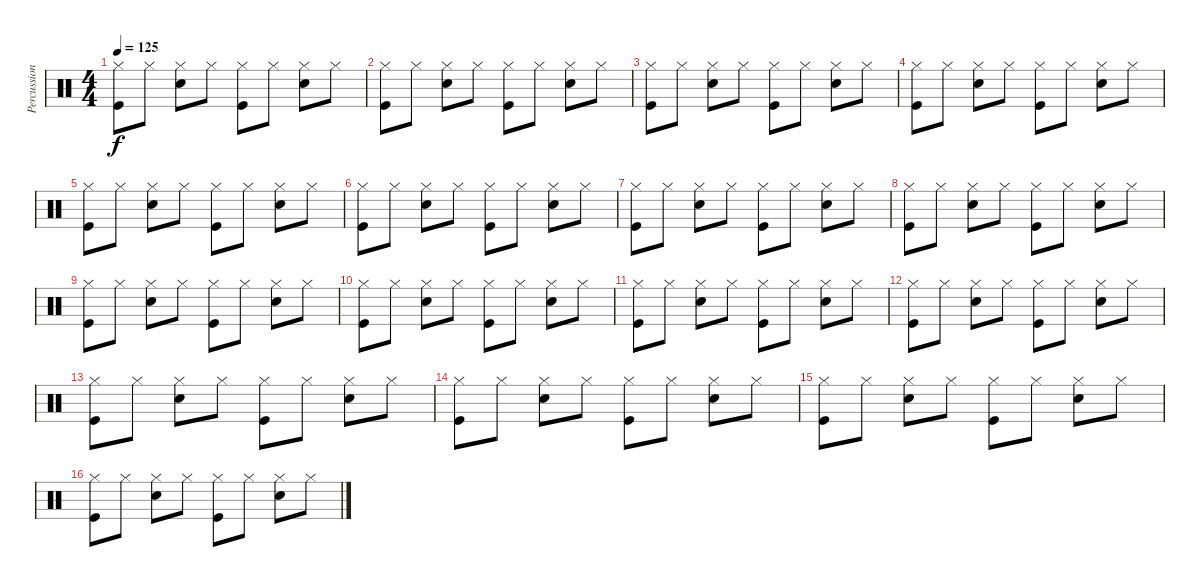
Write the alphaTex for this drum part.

\track ("Percussion" "Percussion") {instrument percussion}
\staff {score}
\articulation defaults
\ts (4 4)
\tempo 125
\clef neutral
\ks c
("Hi-Hat (closed)" "Kick (hit)").8{dy f} "Hi-Hat (closed)".8 ("Snare (hit) 2" "Hi-Hat (closed)").8 "Hi-Hat (closed)".8 ("Hi-Hat (closed)" "Kick (hit)").8 "Hi-Hat (closed)".8 ("Snare (hit) 2" "Hi-Hat (closed)").8 "Hi-Hat (closed)".8 |
("Hi-Hat (closed)" "Kick (hit)").8 "Hi-Hat (closed)".8 ("Snare (hit) 2" "Hi-Hat (closed)").8 "Hi-Hat (closed)".8 ("Hi-Hat (closed)" "Kick (hit)").8 "Hi-Hat (closed)".8 ("Snare (hit) 2" "Hi-Hat (closed)").8 "Hi-Hat (closed)".8 |
("Hi-Hat (closed)" "Kick (hit)").8 "Hi-Hat (closed)".8 ("Snare (hit) 2" "Hi-Hat (closed)").8 "Hi-Hat (closed)".8 ("Hi-Hat (closed)" "Kick (hit)").8 "Hi-Hat (closed)".8 ("Snare (hit) 2" "Hi-Hat (closed)").8 "Hi-Hat (closed)".8 |
("Hi-Hat (closed)" "Kick (hit)").8 "Hi-Hat (closed)".8 ("Snare (hit) 2" "Hi-Hat (closed)").8 "Hi-Hat (closed)".8 ("Hi-Hat (closed)" "Kick (hit)").8 "Hi-Hat (closed)".8 ("Snare (hit) 2" "Hi-Hat (closed)").8 "Hi-Hat (closed)".8 |
("Hi-Hat (closed)" "Kick (hit)").8 "Hi-Hat (closed)".8 ("Snare (hit) 2" "Hi-Hat (closed)").8 "Hi-Hat (closed)".8 ("Hi-Hat (closed)" "Kick (hit)").8 "Hi-Hat (closed)".8 ("Snare (hit) 2" "Hi-Hat (closed)").8 "Hi-Hat (closed)".8 |
("Hi-Hat (closed)" "Kick (hit)").8 "Hi-Hat (closed)".8 ("Snare (hit) 2" "Hi-Hat (closed)").8 "Hi-Hat (closed)".8 ("Hi-Hat (closed)" "Kick (hit)").8 "Hi-Hat (closed)".8 ("Snare (hit) 2" "Hi-Hat (closed)").8 "Hi-Hat (closed)".8 |
("Hi-Hat (closed)" "Kick (hit)").8 "Hi-Hat (closed)".8 ("Snare (hit) 2" "Hi-Hat (closed)").8 "Hi-Hat (closed)".8 ("Hi-Hat (closed)" "Kick (hit)").8 "Hi-Hat (closed)".8 ("Snare (hit) 2" "Hi-Hat (closed)").8 "Hi-Hat (closed)".8 |
("Hi-Hat (closed)" "Kick (hit)").8 "Hi-Hat (closed)".8 ("Snare (hit) 2" "Hi-Hat (closed)").8 "Hi-Hat (closed)".8 ("Hi-Hat (closed)" "Kick (hit)").8 "Hi-Hat (closed)".8 ("Snare (hit) 2" "Hi-Hat (closed)").8 "Hi-Hat (closed)".8 |
("Hi-Hat (closed)" "Kick (hit)").8 "Hi-Hat (closed)".8 ("Snare (hit) 2" "Hi-Hat (closed)").8 "Hi-Hat (closed)".8 ("Hi-Hat (closed)" "Kick (hit)").8 "Hi-Hat (closed)".8 ("Snare (hit) 2" "Hi-Hat (closed)").8 "Hi-Hat (closed)".8 |
("Hi-Hat (closed)" "Kick (hit)").8 "Hi-Hat (closed)".8 ("Snare (hit) 2" "Hi-Hat (closed)").8 "Hi-Hat (closed)".8 ("Hi-Hat (closed)" "Kick (hit)").8 "Hi-Hat (closed)".8 ("Snare (hit) 2" "Hi-Hat (closed)").8 "Hi-Hat (closed)".8 |
("Hi-Hat (closed)" "Kick (hit)").8 "Hi-Hat (closed)".8 ("Snare (hit) 2" "Hi-Hat (closed)").8 "Hi-Hat (closed)".8 ("Hi-Hat (closed)" "Kick (hit)").8 "Hi-Hat (closed)".8 ("Snare (hit) 2" "Hi-Hat (closed)").8 "Hi-Hat (closed)".8 |
("Hi-Hat (closed)" "Kick (hit)").8 "Hi-Hat (closed)".8 ("Snare (hit) 2" "Hi-Hat (closed)").8 "Hi-Hat (closed)".8 ("Hi-Hat (closed)" "Kick (hit)").8 "Hi-Hat (closed)".8 ("Snare (hit) 2" "Hi-Hat (closed)").8 "Hi-Hat (closed)".8 |
("Hi-Hat (closed)" "Kick (hit)").8 "Hi-Hat (closed)".8 ("Snare (hit) 2" "Hi-Hat (closed)").8 "Hi-Hat (closed)".8 ("Hi-Hat (closed)" "Kick (hit)").8 "Hi-Hat (closed)".8 ("Snare (hit) 2" "Hi-Hat (closed)").8 "Hi-Hat (closed)".8 |
("Hi-Hat (closed)" "Kick (hit)").8 "Hi-Hat (closed)".8 ("Snare (hit) 2" "Hi-Hat (closed)").8 "Hi-Hat (closed)".8 ("Hi-Hat (closed)" "Kick (hit)").8 "Hi-Hat (closed)".8 ("Snare (hit) 2" "Hi-Hat (closed)").8 "Hi-Hat (closed)".8 |
("Hi-Hat (closed)" "Kick (hit)").8 "Hi-Hat (closed)".8 ("Snare (hit) 2" "Hi-Hat (closed)").8 "Hi-Hat (closed)".8 ("Hi-Hat (closed)" "Kick (hit)").8 "Hi-Hat (closed)".8 ("Snare (hit) 2" "Hi-Hat (closed)").8 "Hi-Hat (closed)".8 |
("Hi-Hat (closed)" "Kick (hit)").8 "Hi-Hat (closed)".8 ("Snare (hit) 2" "Hi-Hat (closed)").8 "Hi-Hat (closed)".8 ("Hi-Hat (closed)" "Kick (hit)").8 "Hi-Hat (closed)".8 ("Snare (hit) 2" "Hi-Hat (closed)").8 "Hi-Hat (closed)".8
